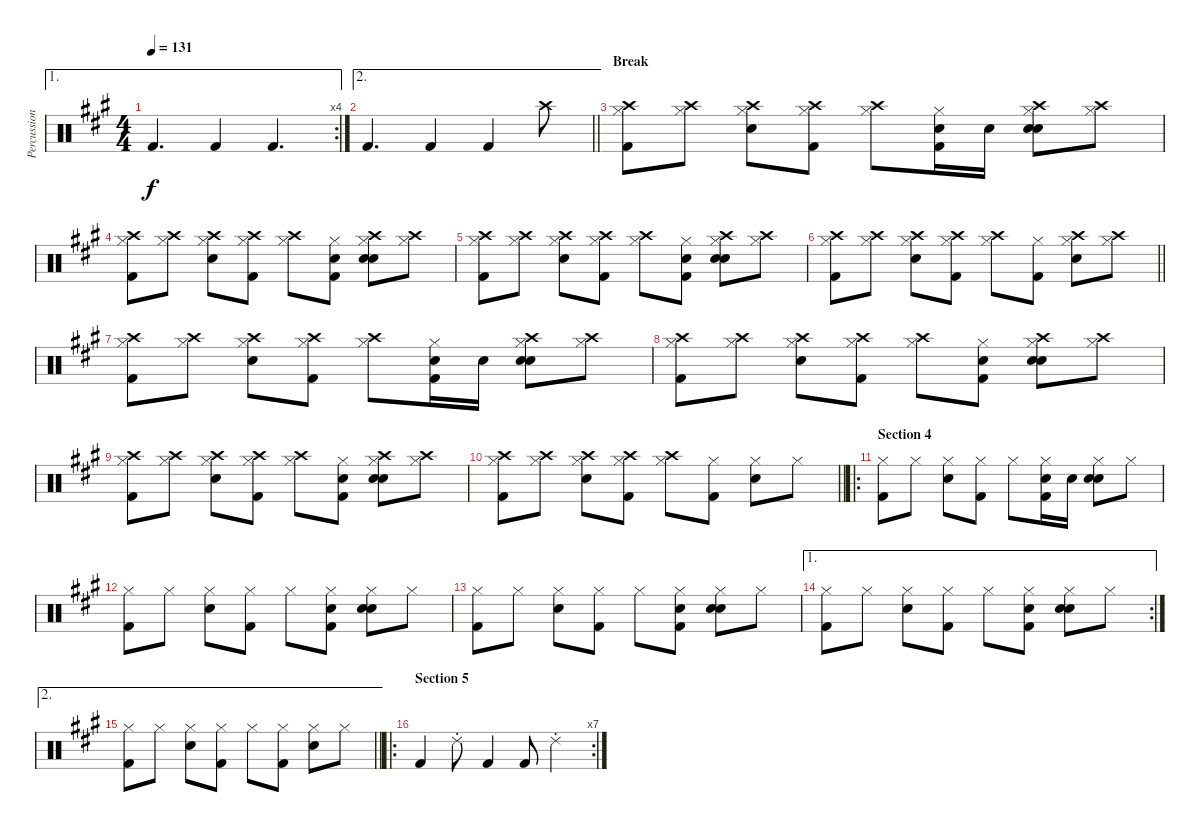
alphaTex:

\track ("Percussion" "Percussion") {instrument percussion bank 2}
\staff {score}
\articulation defaults
\ae 1
\rc 4
\ts (4 4)
\tempo 131
\clef neutral
\ks f#minor "Kick (hit) 2".4{d dy f} "Kick (hit) 2".4 "Kick (hit) 2".4{d}
|
\ae 2
\barLineRight lightlight "Kick (hit) 2".4{d} "Kick (hit) 2".4 "Kick (hit) 2".4 "Crash high (hit)".8
|
\section ("" "Break")
("Crash high (hit)" "Hi-Hat (closed)" "Kick (hit) 2").8 ("Crash high (hit)" "Hi-Hat (closed)").8 ("Crash high (hit)" "Hi-Hat (closed)" "Snare (hit) 2").8 ("Crash high (hit)" "Hi-Hat (closed)" "Kick (hit) 2").8 ("Crash high (hit)" "Hi-Hat (closed)").8 ("Hi-Hat (closed)" "Hand Clap (hit)" "Kick (hit) 2").16 "Hand Clap (hit)".16 ("Crash high (hit)" "Hi-Hat (closed)" "Hand Clap (hit)" "Snare (hit) 2").8 ("Crash high (hit)" "Hi-Hat (closed)").8 |
("Crash high (hit)" "Hi-Hat (closed)" "Kick (hit) 2").8 ("Crash high (hit)" "Hi-Hat (closed)").8 ("Crash high (hit)" "Hi-Hat (closed)" "Snare (hit) 2").8 ("Crash high (hit)" "Hi-Hat (closed)" "Kick (hit) 2").8 ("Crash high (hit)" "Hi-Hat (closed)").8 ("Hi-Hat (closed)" "Hand Clap (hit)" "Kick (hit) 2").8 ("Crash high (hit)" "Hi-Hat (closed)" "Hand Clap (hit)" "Snare (hit) 2").8 ("Crash high (hit)" "Hi-Hat (closed)").8 |
("Crash high (hit)" "Hi-Hat (closed)" "Kick (hit) 2").8 ("Crash high (hit)" "Hi-Hat (closed)").8 ("Crash high (hit)" "Hi-Hat (closed)" "Snare (hit) 2").8 ("Crash high (hit)" "Hi-Hat (closed)" "Kick (hit) 2").8 ("Crash high (hit)" "Hi-Hat (closed)").8 ("Hi-Hat (closed)" "Hand Clap (hit)" "Kick (hit) 2").8 ("Crash high (hit)" "Hi-Hat (closed)" "Hand Clap (hit)" "Snare (hit) 2").8 ("Crash high (hit)" "Hi-Hat (closed)").8 |
\barLineRight lightlight
("Crash high (hit)" "Hi-Hat (closed)" "Kick (hit) 2").8 ("Crash high (hit)" "Hi-Hat (closed)").8 ("Crash high (hit)" "Hi-Hat (closed)" "Snare (hit) 2").8 ("Crash high (hit)" "Hi-Hat (closed)" "Kick (hit) 2").8 ("Crash high (hit)" "Hi-Hat (closed)").8 ("Hi-Hat (closed)" "Kick (hit) 2").8 ("Crash high (hit)" "Hi-Hat (closed)" "Snare (hit) 2").8 ("Crash high (hit)" "Hi-Hat (closed)").8 |
("Crash high (hit)" "Hi-Hat (closed)" "Kick (hit) 2").8 ("Crash high (hit)" "Hi-Hat (closed)").8 ("Crash high (hit)" "Hi-Hat (closed)" "Snare (hit) 2").8 ("Crash high (hit)" "Hi-Hat (closed)" "Kick (hit) 2").8 ("Crash high (hit)" "Hi-Hat (closed)").8 ("Hi-Hat (closed)" "Hand Clap (hit)" "Kick (hit) 2").16 "Hand Clap (hit)".16 ("Crash high (hit)" "Hi-Hat (closed)" "Hand Clap (hit)" "Snare (hit) 2").8 ("Crash high (hit)" "Hi-Hat (closed)").8 |
("Crash high (hit)" "Hi-Hat (closed)" "Kick (hit) 2").8 ("Crash high (hit)" "Hi-Hat (closed)").8 ("Crash high (hit)" "Hi-Hat (closed)" "Snare (hit) 2").8 ("Crash high (hit)" "Hi-Hat (closed)" "Kick (hit) 2").8 ("Crash high (hit)" "Hi-Hat (closed)").8 ("Hi-Hat (closed)" "Hand Clap (hit)" "Kick (hit) 2").8 ("Crash high (hit)" "Hi-Hat (closed)" "Hand Clap (hit)" "Snare (hit) 2").8 ("Crash high (hit)" "Hi-Hat (closed)").8 |
("Crash high (hit)" "Hi-Hat (closed)" "Kick (hit) 2").8 ("Crash high (hit)" "Hi-Hat (closed)").8 ("Crash high (hit)" "Hi-Hat (closed)" "Snare (hit) 2").8 ("Crash high (hit)" "Hi-Hat (closed)" "Kick (hit) 2").8 ("Crash high (hit)" "Hi-Hat (closed)").8 ("Hi-Hat (closed)" "Hand Clap (hit)" "Kick (hit) 2").8 ("Crash high (hit)" "Hi-Hat (closed)" "Hand Clap (hit)" "Snare (hit) 2").8 ("Crash high (hit)" "Hi-Hat (closed)").8 |
\barLineRight lightlight
("Crash high (hit)" "Hi-Hat (closed)" "Kick (hit) 2").8 ("Crash high (hit)" "Hi-Hat (closed)").8 ("Crash high (hit)" "Hi-Hat (closed)" "Snare (hit) 2").8 ("Crash high (hit)" "Hi-Hat (closed)" "Kick (hit) 2").8 ("Crash high (hit)" "Hi-Hat (closed)").8 ("Hi-Hat (closed)" "Kick (hit) 2").8 ("Hi-Hat (closed)" "Snare (hit) 2").8 "Hi-Hat (closed)".8 |
\ro
\section ("" "Section 4")
("Hi-Hat (closed)" "Kick (hit) 2").8 "Hi-Hat (closed)".8 ("Hi-Hat (closed)" "Snare (hit) 2").8 ("Hi-Hat (closed)" "Kick (hit) 2").8 "Hi-Hat (closed)".8 ("Hi-Hat (closed)" "Hand Clap (hit)" "Kick (hit) 2").16 "Hand Clap (hit)".16 ("Hi-Hat (closed)" "Hand Clap (hit)" "Snare (hit) 2").8 "Hi-Hat (closed)".8 |
("Hi-Hat (closed)" "Kick (hit) 2").8 "Hi-Hat (closed)".8 ("Hi-Hat (closed)" "Snare (hit) 2").8 ("Hi-Hat (closed)" "Kick (hit) 2").8 "Hi-Hat (closed)".8 ("Hi-Hat (closed)" "Hand Clap (hit)" "Kick (hit) 2").8 ("Hi-Hat (closed)" "Hand Clap (hit)" "Snare (hit) 2").8 "Hi-Hat (closed)".8 |
("Hi-Hat (closed)" "Kick (hit) 2").8 "Hi-Hat (closed)".8 ("Hi-Hat (closed)" "Snare (hit) 2").8 ("Hi-Hat (closed)" "Kick (hit) 2").8 "Hi-Hat (closed)".8 ("Hi-Hat (closed)" "Hand Clap (hit)" "Kick (hit) 2").8 ("Hi-Hat (closed)" "Hand Clap (hit)" "Snare (hit) 2").8 "Hi-Hat (closed)".8 |
\ae 1
\rc 2
("Hi-Hat (closed)" "Kick (hit) 2").8 "Hi-Hat (closed)".8 ("Hi-Hat (closed)" "Snare (hit) 2").8 ("Hi-Hat (closed)" "Kick (hit) 2").8 "Hi-Hat (closed)".8 ("Hi-Hat (closed)" "Hand Clap (hit)" "Kick (hit) 2").8 ("Hi-Hat (closed)" "Hand Clap (hit)" "Snare (hit) 2").8 "Hi-Hat (closed)".8 |
\ae 2
\barLineRight lightlight
("Hi-Hat (closed)" "Kick (hit) 2").8 "Hi-Hat (closed)".8 ("Hi-Hat (closed)" "Snare (hit) 2").8 ("Hi-Hat (closed)" "Kick (hit) 2").8 "Hi-Hat (closed)".8 ("Hi-Hat (closed)" "Kick (hit) 2").8 ("Hi-Hat (closed)" "Snare (hit) 2").8 "Hi-Hat (closed)".8 |
\ro
\rc 7
\section ("" "Section 5")
"Kick (hit) 2".4 "Ride (choke) 2".8 "Kick (hit) 2".4 "Kick (hit) 2".8 "Ride (choke) 2".4
